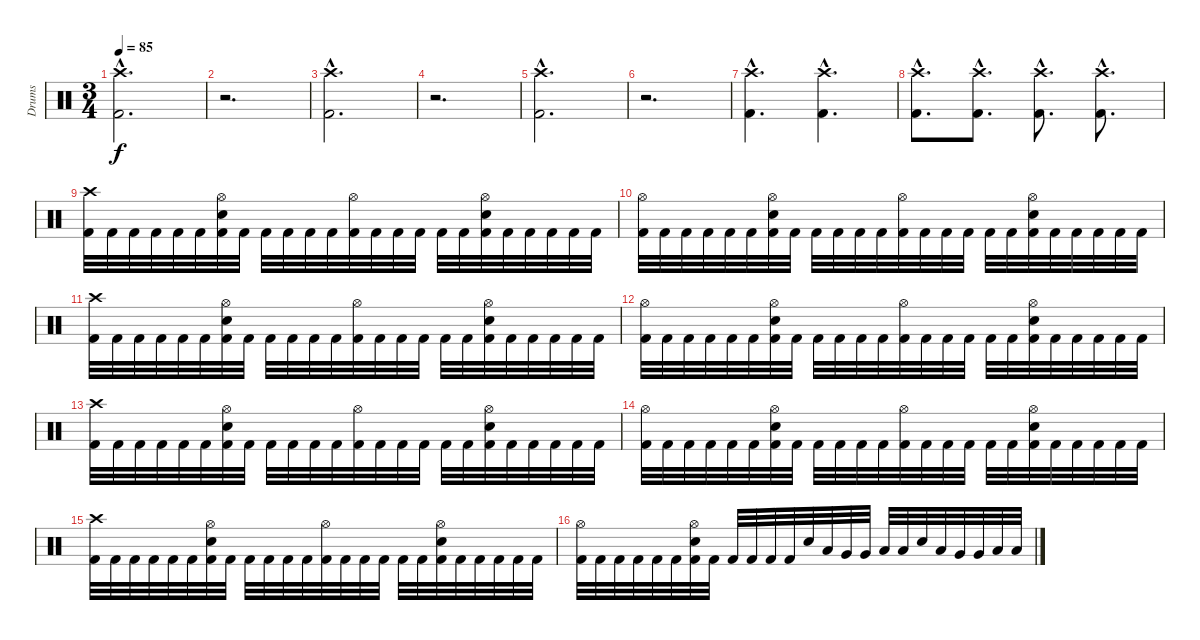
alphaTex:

\track ("Drums" "Drums") {instrument percussion}
\staff {score}
\articulation defaults
\ts (3 4)
\tempo 85
\clef neutral
\ks c
("Crash high (hit)"{hac} "Kick (hit) 2"{hac}).2{d dy f} |
r.2{d} |
("Crash high (hit)"{hac} "Kick (hit) 2"{hac}).2{d} |
r.2{d} |
("Crash high (hit)"{hac} "Kick (hit) 2"{hac}).2{d} |
r.2{d} |
("Crash high (hit)"{hac} "Kick (hit) 2"{hac}).4{d} ("Crash high (hit)"{hac} "Kick (hit) 2"{hac}).4{d} |
("Crash high (hit)"{hac} "Kick (hit) 2"{hac}).8{d} ("Crash high (hit)"{hac} "Kick (hit) 2"{hac}).8{d} ("Crash high (hit)"{hac} "Kick (hit) 2"{hac}).8{d} ("Crash high (hit)"{hac} "Kick (hit) 2"{hac}).8{d} |
("Crash high (hit)" "Kick (hit) 2").32 "Kick (hit) 2".32 "Kick (hit) 2".32 "Kick (hit) 2".32 "Kick (hit) 2".32 "Kick (hit) 2".32 ("Snare (hit) 2" "Hi-Hat (open)" "Kick (hit) 2").32 "Kick (hit) 2".32 "Kick (hit) 2".32 "Kick (hit) 2".32 "Kick (hit) 2".32 "Kick (hit) 2".32 ("Hi-Hat (open)" "Kick (hit) 2").32 "Kick (hit) 2".32 "Kick (hit) 2".32 "Kick (hit) 2".32 "Kick (hit) 2".32 "Kick (hit) 2".32 ("Snare (hit) 2" "Hi-Hat (open)" "Kick (hit) 2").32 "Kick (hit) 2".32 "Kick (hit) 2".32 "Kick (hit) 2".32 "Kick (hit) 2".32 "Kick (hit) 2".32 |
("Hi-Hat (open)" "Kick (hit) 2").32 "Kick (hit) 2".32 "Kick (hit) 2".32 "Kick (hit) 2".32 "Kick (hit) 2".32 "Kick (hit) 2".32 ("Snare (hit) 2" "Hi-Hat (open)" "Kick (hit) 2").32 "Kick (hit) 2".32 "Kick (hit) 2".32 "Kick (hit) 2".32 "Kick (hit) 2".32 "Kick (hit) 2".32 ("Hi-Hat (open)" "Kick (hit) 2").32 "Kick (hit) 2".32 "Kick (hit) 2".32 "Kick (hit) 2".32 "Kick (hit) 2".32 "Kick (hit) 2".32 ("Snare (hit) 2" "Hi-Hat (open)" "Kick (hit) 2").32 "Kick (hit) 2".32 "Kick (hit) 2".32 "Kick (hit) 2".32 "Kick (hit) 2".32 "Kick (hit) 2".32 |
("Crash high (hit)" "Kick (hit) 2").32 "Kick (hit) 2".32 "Kick (hit) 2".32 "Kick (hit) 2".32 "Kick (hit) 2".32 "Kick (hit) 2".32 ("Snare (hit) 2" "Hi-Hat (open)" "Kick (hit) 2").32 "Kick (hit) 2".32 "Kick (hit) 2".32 "Kick (hit) 2".32 "Kick (hit) 2".32 "Kick (hit) 2".32 ("Hi-Hat (open)" "Kick (hit) 2").32 "Kick (hit) 2".32 "Kick (hit) 2".32 "Kick (hit) 2".32 "Kick (hit) 2".32 "Kick (hit) 2".32 ("Snare (hit) 2" "Hi-Hat (open)" "Kick (hit) 2").32 "Kick (hit) 2".32 "Kick (hit) 2".32 "Kick (hit) 2".32 "Kick (hit) 2".32 "Kick (hit) 2".32 |
("Hi-Hat (open)" "Kick (hit) 2").32 "Kick (hit) 2".32 "Kick (hit) 2".32 "Kick (hit) 2".32 "Kick (hit) 2".32 "Kick (hit) 2".32 ("Snare (hit) 2" "Hi-Hat (open)" "Kick (hit) 2").32 "Kick (hit) 2".32 "Kick (hit) 2".32 "Kick (hit) 2".32 "Kick (hit) 2".32 "Kick (hit) 2".32 ("Hi-Hat (open)" "Kick (hit) 2").32 "Kick (hit) 2".32 "Kick (hit) 2".32 "Kick (hit) 2".32 "Kick (hit) 2".32 "Kick (hit) 2".32 ("Snare (hit) 2" "Hi-Hat (open)" "Kick (hit) 2").32 "Kick (hit) 2".32 "Kick (hit) 2".32 "Kick (hit) 2".32 "Kick (hit) 2".32 "Kick (hit) 2".32 |
("Crash high (hit)" "Kick (hit) 2").32 "Kick (hit) 2".32 "Kick (hit) 2".32 "Kick (hit) 2".32 "Kick (hit) 2".32 "Kick (hit) 2".32 ("Snare (hit) 2" "Hi-Hat (open)" "Kick (hit) 2").32 "Kick (hit) 2".32 "Kick (hit) 2".32 "Kick (hit) 2".32 "Kick (hit) 2".32 "Kick (hit) 2".32 ("Hi-Hat (open)" "Kick (hit) 2").32 "Kick (hit) 2".32 "Kick (hit) 2".32 "Kick (hit) 2".32 "Kick (hit) 2".32 "Kick (hit) 2".32 ("Snare (hit) 2" "Hi-Hat (open)" "Kick (hit) 2").32 "Kick (hit) 2".32 "Kick (hit) 2".32 "Kick (hit) 2".32 "Kick (hit) 2".32 "Kick (hit) 2".32 |
("Hi-Hat (open)" "Kick (hit) 2").32 "Kick (hit) 2".32 "Kick (hit) 2".32 "Kick (hit) 2".32 "Kick (hit) 2".32 "Kick (hit) 2".32 ("Snare (hit) 2" "Hi-Hat (open)" "Kick (hit) 2").32 "Kick (hit) 2".32 "Kick (hit) 2".32 "Kick (hit) 2".32 "Kick (hit) 2".32 "Kick (hit) 2".32 ("Hi-Hat (open)" "Kick (hit) 2").32 "Kick (hit) 2".32 "Kick (hit) 2".32 "Kick (hit) 2".32 "Kick (hit) 2".32 "Kick (hit) 2".32 ("Snare (hit) 2" "Hi-Hat (open)" "Kick (hit) 2").32 "Kick (hit) 2".32 "Kick (hit) 2".32 "Kick (hit) 2".32 "Kick (hit) 2".32 "Kick (hit) 2".32 |
("Crash high (hit)" "Kick (hit) 2").32 "Kick (hit) 2".32 "Kick (hit) 2".32 "Kick (hit) 2".32 "Kick (hit) 2".32 "Kick (hit) 2".32 ("Snare (hit) 2" "Hi-Hat (open)" "Kick (hit) 2").32 "Kick (hit) 2".32 "Kick (hit) 2".32 "Kick (hit) 2".32 "Kick (hit) 2".32 "Kick (hit) 2".32 ("Hi-Hat (open)" "Kick (hit) 2").32 "Kick (hit) 2".32 "Kick (hit) 2".32 "Kick (hit) 2".32 "Kick (hit) 2".32 "Kick (hit) 2".32 ("Snare (hit) 2" "Hi-Hat (open)" "Kick (hit) 2").32 "Kick (hit) 2".32 "Kick (hit) 2".32 "Kick (hit) 2".32 "Kick (hit) 2".32 "Kick (hit) 2".32 |
("Hi-Hat (open)" "Kick (hit) 2").32 "Kick (hit) 2".32 "Kick (hit) 2".32 "Kick (hit) 2".32 "Kick (hit) 2".32 "Kick (hit) 2".32 ("Snare (hit) 2" "Hi-Hat (open)" "Kick (hit) 2").32 "Kick (hit) 2".32 "Kick (hit) 2".32 "Kick (hit) 2".32 "Kick (hit) 2".32 "Kick (hit) 2".32 "Snare (hit) 2".32 "Low Tom (hit)".32 "Very Low Tom (hit)".32 "Very Low Tom (hit)".32 "Low Floor Tom (hit)".32 "Low Floor Tom (hit)".32 "Snare (hit) 2".32 "Low Tom (hit)".32 "Very Low Tom (hit)".32 "Very Low Tom (hit)".32 "Low Floor Tom (hit)".32 "Low Floor Tom (hit)".32
